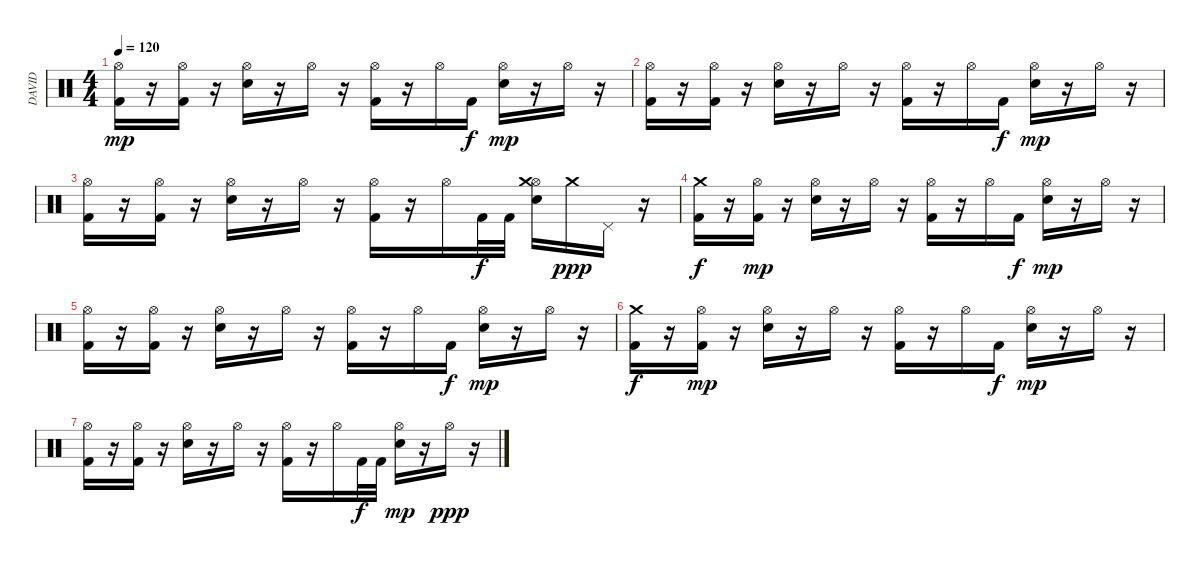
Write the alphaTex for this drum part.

\track ("DAVID" "DAVID") {instrument percussion}
\staff {score}
\articulation defaults
\ts (4 4)
\tempo 120
\clef neutral
\ks c
("Hi-Hat (open)" "Kick (hit) 2").16{dy mp} r.16 ("Hi-Hat (open)" "Kick (hit) 2").16 r.16 ("Hi-Hat (open)" "Snare (hit) 2").16 r.16 "Hi-Hat (open)".16 r.16 ("Hi-Hat (open)" "Kick (hit) 2").16 r.16 "Hi-Hat (open)".16 "Kick (hit) 2".16{dy f} ("Hi-Hat (open)" "Snare (hit) 2").16{dy mp} r.16 "Hi-Hat (open)".16 r.16 |
("Hi-Hat (open)" "Kick (hit) 2").16 r.16 ("Hi-Hat (open)" "Kick (hit) 2").16 r.16 ("Hi-Hat (open)" "Snare (hit) 2").16 r.16 "Hi-Hat (open)".16 r.16 ("Hi-Hat (open)" "Kick (hit) 2").16 r.16 "Hi-Hat (open)".16 "Kick (hit) 2".16{dy f} ("Hi-Hat (open)" "Snare (hit) 2").16{dy mp} r.16 "Hi-Hat (open)".16 r.16 |
("Hi-Hat (open)" "Kick (hit) 2").16 r.16 ("Hi-Hat (open)" "Kick (hit) 2").16 r.16 ("Hi-Hat (open)" "Snare (hit) 2").16 r.16 "Hi-Hat (open)".16 r.16 ("Hi-Hat (open)" "Kick (hit) 2").16 r.16 "Hi-Hat (open)".16 "Kick (hit) 2".32{dy f} "Kick (hit) 2".32 ("Hi-Hat (open)" "Crash medium (hit)" "Snare (hit) 2").16 "Crash medium (hit)".16{dy ppp} "Pedal Hi-Hat (hit)".16 r.16 |
("Crash medium (hit)" "Kick (hit) 2").16{dy f} r.16 ("Hi-Hat (open)" "Kick (hit) 2").16{dy mp} r.16 ("Hi-Hat (open)" "Snare (hit) 2").16 r.16 "Hi-Hat (open)".16 r.16 ("Hi-Hat (open)" "Kick (hit) 2").16 r.16 "Hi-Hat (open)".16 "Kick (hit) 2".16{dy f} ("Hi-Hat (open)" "Snare (hit) 2").16{dy mp} r.16 "Hi-Hat (open)".16 r.16 |
("Hi-Hat (open)" "Kick (hit) 2").16 r.16 ("Hi-Hat (open)" "Kick (hit) 2").16 r.16 ("Hi-Hat (open)" "Snare (hit) 2").16 r.16 "Hi-Hat (open)".16 r.16 ("Hi-Hat (open)" "Kick (hit) 2").16 r.16 "Hi-Hat (open)".16 "Kick (hit) 2".16{dy f} ("Hi-Hat (open)" "Snare (hit) 2").16{dy mp} r.16 "Hi-Hat (open)".16 r.16 |
("Crash medium (hit)" "Kick (hit) 2").16{dy f} r.16 ("Hi-Hat (open)" "Kick (hit) 2").16{dy mp} r.16 ("Hi-Hat (open)" "Snare (hit) 2").16 r.16 "Hi-Hat (open)".16 r.16 ("Hi-Hat (open)" "Kick (hit) 2").16 r.16 "Hi-Hat (open)".16 "Kick (hit) 2".16{dy f} ("Hi-Hat (open)" "Snare (hit) 2").16{dy mp} r.16 "Hi-Hat (open)".16 r.16 |
("Hi-Hat (open)" "Kick (hit) 2").16 r.16 ("Hi-Hat (open)" "Kick (hit) 2").16 r.16 ("Hi-Hat (open)" "Snare (hit) 2").16 r.16 "Hi-Hat (open)".16 r.16 ("Hi-Hat (open)" "Kick (hit) 2").16 r.16 "Hi-Hat (open)".16 "Kick (hit) 2".32{dy f} "Kick (hit) 2".32 ("Hi-Hat (open)" "Snare (hit) 2").16{dy mp} r.16 "Hi-Hat (open)".16{dy ppp} r.16
